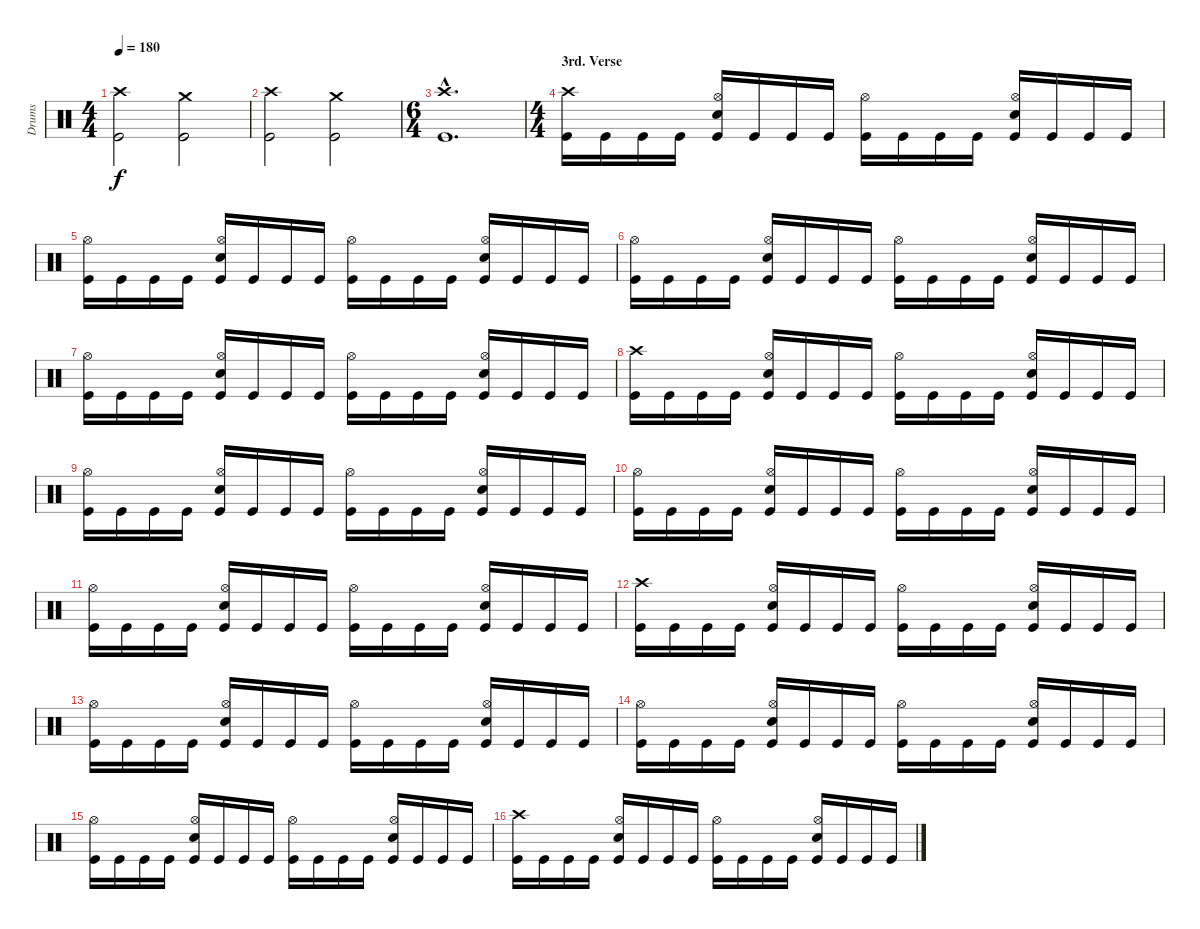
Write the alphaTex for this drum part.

\track ("Drums" "Drums") {instrument percussion}
\staff {score}
\articulation defaults
\ts (4 4)
\tempo 180
\clef neutral
\ks c
("Crash high (hit)" "Kick (hit)").2{dy f} ("Crash medium (hit)" "Kick (hit)").2 |
("Crash high (hit)" "Kick (hit)").2 ("Crash medium (hit)" "Kick (hit)").2 |
\ts (6 4)
("Crash high (hit)"{hac} "Kick (hit)"{hac}).1{d} |
\ts (4 4)
\section ("" "3rd. Verse")
("Crash high (hit)" "Kick (hit)").16 "Kick (hit)".16 "Kick (hit)".16 "Kick (hit)".16 ("Hi-Hat (open)" "Electric Snare (hit)" "Kick (hit)").16 "Kick (hit)".16 "Kick (hit)".16 "Kick (hit)".16 ("Hi-Hat (open)" "Kick (hit)").16 "Kick (hit)".16 "Kick (hit)".16 "Kick (hit)".16 ("Hi-Hat (open)" "Electric Snare (hit)" "Kick (hit)").16 "Kick (hit)".16 "Kick (hit)".16 "Kick (hit)".16 |
("Hi-Hat (open)" "Kick (hit)").16 "Kick (hit)".16 "Kick (hit)".16 "Kick (hit)".16 ("Hi-Hat (open)" "Electric Snare (hit)" "Kick (hit)").16 "Kick (hit)".16 "Kick (hit)".16 "Kick (hit)".16 ("Hi-Hat (open)" "Kick (hit)").16 "Kick (hit)".16 "Kick (hit)".16 "Kick (hit)".16 ("Hi-Hat (open)" "Electric Snare (hit)" "Kick (hit)").16 "Kick (hit)".16 "Kick (hit)".16 "Kick (hit)".16 |
("Hi-Hat (open)" "Kick (hit)").16 "Kick (hit)".16 "Kick (hit)".16 "Kick (hit)".16 ("Hi-Hat (open)" "Electric Snare (hit)" "Kick (hit)").16 "Kick (hit)".16 "Kick (hit)".16 "Kick (hit)".16 ("Hi-Hat (open)" "Kick (hit)").16 "Kick (hit)".16 "Kick (hit)".16 "Kick (hit)".16 ("Hi-Hat (open)" "Electric Snare (hit)" "Kick (hit)").16 "Kick (hit)".16 "Kick (hit)".16 "Kick (hit)".16 |
("Hi-Hat (open)" "Kick (hit)").16 "Kick (hit)".16 "Kick (hit)".16 "Kick (hit)".16 ("Hi-Hat (open)" "Electric Snare (hit)" "Kick (hit)").16 "Kick (hit)".16 "Kick (hit)".16 "Kick (hit)".16 ("Hi-Hat (open)" "Kick (hit)").16 "Kick (hit)".16 "Kick (hit)".16 "Kick (hit)".16 ("Hi-Hat (open)" "Electric Snare (hit)" "Kick (hit)").16 "Kick (hit)".16 "Kick (hit)".16 "Kick (hit)".16 |
("Crash high (hit)" "Kick (hit)").16 "Kick (hit)".16 "Kick (hit)".16 "Kick (hit)".16 ("Hi-Hat (open)" "Electric Snare (hit)" "Kick (hit)").16 "Kick (hit)".16 "Kick (hit)".16 "Kick (hit)".16 ("Hi-Hat (open)" "Kick (hit)").16 "Kick (hit)".16 "Kick (hit)".16 "Kick (hit)".16 ("Hi-Hat (open)" "Electric Snare (hit)" "Kick (hit)").16 "Kick (hit)".16 "Kick (hit)".16 "Kick (hit)".16 |
("Hi-Hat (open)" "Kick (hit)").16 "Kick (hit)".16 "Kick (hit)".16 "Kick (hit)".16 ("Hi-Hat (open)" "Electric Snare (hit)" "Kick (hit)").16 "Kick (hit)".16 "Kick (hit)".16 "Kick (hit)".16 ("Hi-Hat (open)" "Kick (hit)").16 "Kick (hit)".16 "Kick (hit)".16 "Kick (hit)".16 ("Hi-Hat (open)" "Electric Snare (hit)" "Kick (hit)").16 "Kick (hit)".16 "Kick (hit)".16 "Kick (hit)".16 |
("Hi-Hat (open)" "Kick (hit)").16 "Kick (hit)".16 "Kick (hit)".16 "Kick (hit)".16 ("Hi-Hat (open)" "Electric Snare (hit)" "Kick (hit)").16 "Kick (hit)".16 "Kick (hit)".16 "Kick (hit)".16 ("Hi-Hat (open)" "Kick (hit)").16 "Kick (hit)".16 "Kick (hit)".16 "Kick (hit)".16 ("Hi-Hat (open)" "Electric Snare (hit)" "Kick (hit)").16 "Kick (hit)".16 "Kick (hit)".16 "Kick (hit)".16 |
("Hi-Hat (open)" "Kick (hit)").16 "Kick (hit)".16 "Kick (hit)".16 "Kick (hit)".16 ("Hi-Hat (open)" "Electric Snare (hit)" "Kick (hit)").16 "Kick (hit)".16 "Kick (hit)".16 "Kick (hit)".16 ("Hi-Hat (open)" "Kick (hit)").16 "Kick (hit)".16 "Kick (hit)".16 "Kick (hit)".16 ("Hi-Hat (open)" "Electric Snare (hit)" "Kick (hit)").16 "Kick (hit)".16 "Kick (hit)".16 "Kick (hit)".16 |
("Crash high (hit)" "Kick (hit)").16 "Kick (hit)".16 "Kick (hit)".16 "Kick (hit)".16 ("Hi-Hat (open)" "Electric Snare (hit)" "Kick (hit)").16 "Kick (hit)".16 "Kick (hit)".16 "Kick (hit)".16 ("Hi-Hat (open)" "Kick (hit)").16 "Kick (hit)".16 "Kick (hit)".16 "Kick (hit)".16 ("Hi-Hat (open)" "Electric Snare (hit)" "Kick (hit)").16 "Kick (hit)".16 "Kick (hit)".16 "Kick (hit)".16 |
("Hi-Hat (open)" "Kick (hit)").16 "Kick (hit)".16 "Kick (hit)".16 "Kick (hit)".16 ("Hi-Hat (open)" "Electric Snare (hit)" "Kick (hit)").16 "Kick (hit)".16 "Kick (hit)".16 "Kick (hit)".16 ("Hi-Hat (open)" "Kick (hit)").16 "Kick (hit)".16 "Kick (hit)".16 "Kick (hit)".16 ("Hi-Hat (open)" "Electric Snare (hit)" "Kick (hit)").16 "Kick (hit)".16 "Kick (hit)".16 "Kick (hit)".16 |
("Hi-Hat (open)" "Kick (hit)").16 "Kick (hit)".16 "Kick (hit)".16 "Kick (hit)".16 ("Hi-Hat (open)" "Electric Snare (hit)" "Kick (hit)").16 "Kick (hit)".16 "Kick (hit)".16 "Kick (hit)".16 ("Hi-Hat (open)" "Kick (hit)").16 "Kick (hit)".16 "Kick (hit)".16 "Kick (hit)".16 ("Hi-Hat (open)" "Electric Snare (hit)" "Kick (hit)").16 "Kick (hit)".16 "Kick (hit)".16 "Kick (hit)".16 |
("Hi-Hat (open)" "Kick (hit)").16 "Kick (hit)".16 "Kick (hit)".16 "Kick (hit)".16 ("Hi-Hat (open)" "Electric Snare (hit)" "Kick (hit)").16 "Kick (hit)".16 "Kick (hit)".16 "Kick (hit)".16 ("Hi-Hat (open)" "Kick (hit)").16 "Kick (hit)".16 "Kick (hit)".16 "Kick (hit)".16 ("Hi-Hat (open)" "Electric Snare (hit)" "Kick (hit)").16 "Kick (hit)".16 "Kick (hit)".16 "Kick (hit)".16 |
("Crash high (hit)" "Kick (hit)").16 "Kick (hit)".16 "Kick (hit)".16 "Kick (hit)".16 ("Hi-Hat (open)" "Electric Snare (hit)" "Kick (hit)").16 "Kick (hit)".16 "Kick (hit)".16 "Kick (hit)".16 ("Hi-Hat (open)" "Kick (hit)").16 "Kick (hit)".16 "Kick (hit)".16 "Kick (hit)".16 ("Hi-Hat (open)" "Electric Snare (hit)" "Kick (hit)").16 "Kick (hit)".16 "Kick (hit)".16 "Kick (hit)".16
